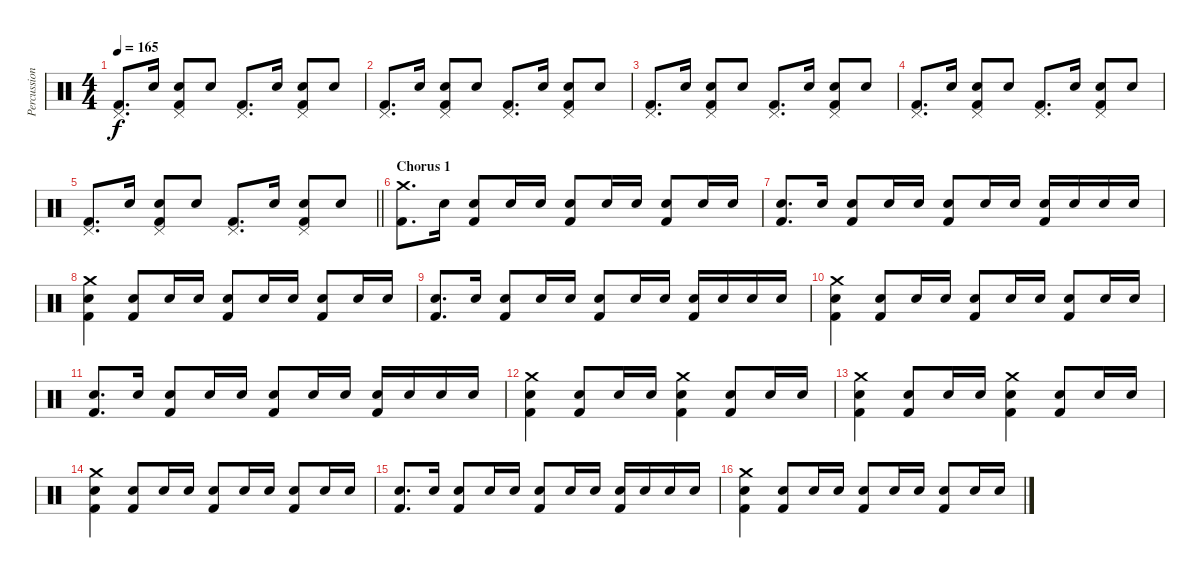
\track ("Percussion" "Percussion") {instrument percussion}
\staff {score}
\articulation defaults
\ts (4 4)
\tempo 165
\clef neutral
\ks c
("Pedal Hi-Hat (hit)" "Kick (hit) 2").8{d dy f} "Electric Snare (hit)".16 ("Pedal Hi-Hat (hit)" "Electric Snare (hit)" "Kick (hit) 2").8 "Electric Snare (hit)".8 ("Pedal Hi-Hat (hit)" "Kick (hit) 2").8{d} "Electric Snare (hit)".16 ("Pedal Hi-Hat (hit)" "Electric Snare (hit)" "Kick (hit) 2").8 "Electric Snare (hit)".8 |
("Pedal Hi-Hat (hit)" "Kick (hit) 2").8{d} "Electric Snare (hit)".16 ("Pedal Hi-Hat (hit)" "Electric Snare (hit)" "Kick (hit) 2").8 "Electric Snare (hit)".8 ("Pedal Hi-Hat (hit)" "Kick (hit) 2").8{d} "Electric Snare (hit)".16 ("Pedal Hi-Hat (hit)" "Electric Snare (hit)" "Kick (hit) 2").8 "Electric Snare (hit)".8 |
("Pedal Hi-Hat (hit)" "Kick (hit) 2").8{d} "Electric Snare (hit)".16 ("Pedal Hi-Hat (hit)" "Electric Snare (hit)" "Kick (hit) 2").8 "Electric Snare (hit)".8 ("Pedal Hi-Hat (hit)" "Kick (hit) 2").8{d} "Electric Snare (hit)".16 ("Pedal Hi-Hat (hit)" "Electric Snare (hit)" "Kick (hit) 2").8 "Electric Snare (hit)".8 |
("Pedal Hi-Hat (hit)" "Kick (hit) 2").8{d} "Electric Snare (hit)".16 ("Pedal Hi-Hat (hit)" "Electric Snare (hit)" "Kick (hit) 2").8 "Electric Snare (hit)".8 ("Pedal Hi-Hat (hit)" "Kick (hit) 2").8{d} "Electric Snare (hit)".16 ("Pedal Hi-Hat (hit)" "Electric Snare (hit)" "Kick (hit) 2").8 "Electric Snare (hit)".8 |
\barLineRight lightlight
("Pedal Hi-Hat (hit)" "Kick (hit) 2").8{d} "Electric Snare (hit)".16 ("Pedal Hi-Hat (hit)" "Electric Snare (hit)" "Kick (hit) 2").8 "Electric Snare (hit)".8 ("Pedal Hi-Hat (hit)" "Kick (hit) 2").8{d} "Electric Snare (hit)".16 ("Pedal Hi-Hat (hit)" "Electric Snare (hit)" "Kick (hit) 2").8 "Electric Snare (hit)".8 |
\section ("" "Chorus 1")
("Crash medium (hit)" "Kick (hit) 2").8{d} "Electric Snare (hit)".16 ("Electric Snare (hit)" "Kick (hit) 2").8 "Electric Snare (hit)".16 "Electric Snare (hit)".16 ("Electric Snare (hit)" "Kick (hit) 2").8 "Electric Snare (hit)".16 "Electric Snare (hit)".16 ("Electric Snare (hit)" "Kick (hit) 2").8 "Electric Snare (hit)".16 "Electric Snare (hit)".16 |
("Electric Snare (hit)" "Kick (hit) 2").8{d} "Electric Snare (hit)".16 ("Electric Snare (hit)" "Kick (hit) 2").8 "Electric Snare (hit)".16 "Electric Snare (hit)".16 ("Electric Snare (hit)" "Kick (hit) 2").8 "Electric Snare (hit)".16 "Electric Snare (hit)".16 ("Electric Snare (hit)" "Kick (hit) 2").16 "Electric Snare (hit)".16 "Electric Snare (hit)".16 "Electric Snare (hit)".16 |
("Crash medium (hit)" "Electric Snare (hit)" "Kick (hit) 2").4 ("Electric Snare (hit)" "Kick (hit) 2").8 "Electric Snare (hit)".16 "Electric Snare (hit)".16 ("Electric Snare (hit)" "Kick (hit) 2").8 "Electric Snare (hit)".16 "Electric Snare (hit)".16 ("Electric Snare (hit)" "Kick (hit) 2").8 "Electric Snare (hit)".16 "Electric Snare (hit)".16 |
("Electric Snare (hit)" "Kick (hit) 2").8{d} "Electric Snare (hit)".16 ("Electric Snare (hit)" "Kick (hit) 2").8 "Electric Snare (hit)".16 "Electric Snare (hit)".16 ("Electric Snare (hit)" "Kick (hit) 2").8 "Electric Snare (hit)".16 "Electric Snare (hit)".16 ("Electric Snare (hit)" "Kick (hit) 2").16 "Electric Snare (hit)".16 "Electric Snare (hit)".16 "Electric Snare (hit)".16 |
("Crash medium (hit)" "Electric Snare (hit)" "Kick (hit) 2").4 ("Electric Snare (hit)" "Kick (hit) 2").8 "Electric Snare (hit)".16 "Electric Snare (hit)".16 ("Electric Snare (hit)" "Kick (hit) 2").8 "Electric Snare (hit)".16 "Electric Snare (hit)".16 ("Electric Snare (hit)" "Kick (hit) 2").8 "Electric Snare (hit)".16 "Electric Snare (hit)".16 |
("Electric Snare (hit)" "Kick (hit) 2").8{d} "Electric Snare (hit)".16 ("Electric Snare (hit)" "Kick (hit) 2").8 "Electric Snare (hit)".16 "Electric Snare (hit)".16 ("Electric Snare (hit)" "Kick (hit) 2").8 "Electric Snare (hit)".16 "Electric Snare (hit)".16 ("Electric Snare (hit)" "Kick (hit) 2").16 "Electric Snare (hit)".16 "Electric Snare (hit)".16 "Electric Snare (hit)".16 |
("Crash medium (hit)" "Electric Snare (hit)" "Kick (hit) 2").4 ("Electric Snare (hit)" "Kick (hit) 2").8 "Electric Snare (hit)".16 "Electric Snare (hit)".16 ("Crash medium (hit)" "Electric Snare (hit)" "Kick (hit) 2").4 ("Electric Snare (hit)" "Kick (hit) 2").8 "Electric Snare (hit)".16 "Electric Snare (hit)".16 |
("Crash medium (hit)" "Electric Snare (hit)" "Kick (hit) 2").4 ("Electric Snare (hit)" "Kick (hit) 2").8 "Electric Snare (hit)".16 "Electric Snare (hit)".16 ("Crash medium (hit)" "Electric Snare (hit)" "Kick (hit) 2").4 ("Electric Snare (hit)" "Kick (hit) 2").8 "Electric Snare (hit)".16 "Electric Snare (hit)".16 |
("Crash medium (hit)" "Electric Snare (hit)" "Kick (hit) 2").4 ("Electric Snare (hit)" "Kick (hit) 2").8 "Electric Snare (hit)".16 "Electric Snare (hit)".16 ("Electric Snare (hit)" "Kick (hit) 2").8 "Electric Snare (hit)".16 "Electric Snare (hit)".16 ("Electric Snare (hit)" "Kick (hit) 2").8 "Electric Snare (hit)".16 "Electric Snare (hit)".16 |
("Electric Snare (hit)" "Kick (hit) 2").8{d} "Electric Snare (hit)".16 ("Electric Snare (hit)" "Kick (hit) 2").8 "Electric Snare (hit)".16 "Electric Snare (hit)".16 ("Electric Snare (hit)" "Kick (hit) 2").8 "Electric Snare (hit)".16 "Electric Snare (hit)".16 ("Electric Snare (hit)" "Kick (hit) 2").16 "Electric Snare (hit)".16 "Electric Snare (hit)".16 "Electric Snare (hit)".16 |
("Crash medium (hit)" "Electric Snare (hit)" "Kick (hit) 2").4 ("Electric Snare (hit)" "Kick (hit) 2").8 "Electric Snare (hit)".16 "Electric Snare (hit)".16 ("Electric Snare (hit)" "Kick (hit) 2").8 "Electric Snare (hit)".16 "Electric Snare (hit)".16 ("Electric Snare (hit)" "Kick (hit) 2").8 "Electric Snare (hit)".16 "Electric Snare (hit)".16
